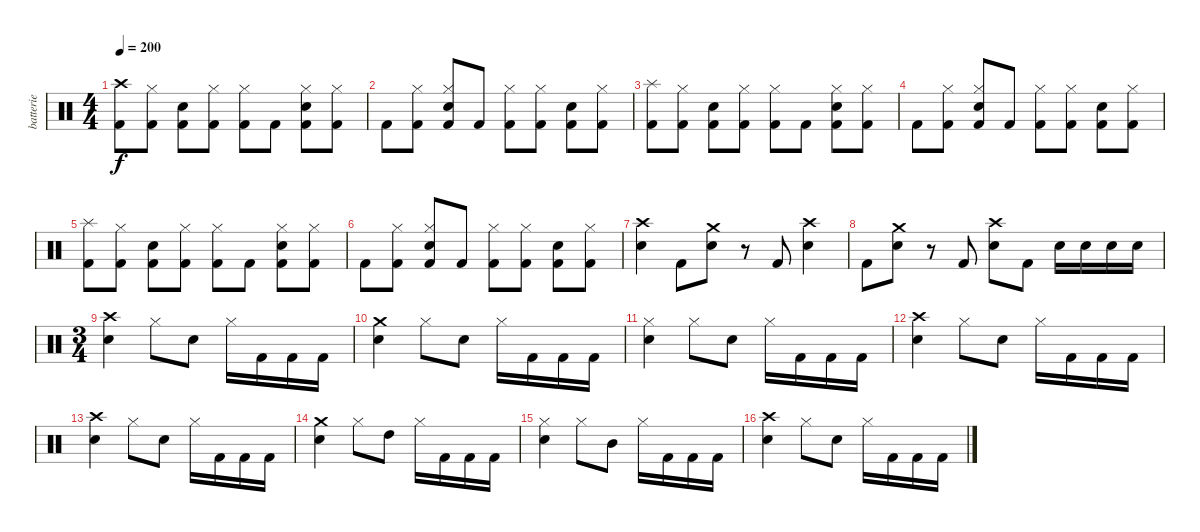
\track ("batterie" "batterie") {instrument percussion}
\staff {score}
\articulation defaults
\ts (4 4)
\tempo 200
\clef neutral
\ks c
("Kick (hit) 2" "Crash high (hit)").8{dy f} ("Kick (hit) 2" "Hi-Hat (closed)").8 ("Kick (hit) 2" "Electric Snare (hit)").8 ("Kick (hit) 2" "Hi-Hat (closed)").8 ("Kick (hit) 2" "Hi-Hat (closed)").8 "Kick (hit) 2".8 ("Kick (hit) 2" "Electric Snare (hit)" "Hi-Hat (closed)").8 ("Kick (hit) 2" "Hi-Hat (closed)").8 |
"Kick (hit) 2".8 ("Kick (hit) 2" "Hi-Hat (closed)").8 ("Kick (hit) 2" "Electric Snare (hit)" "Hi-Hat (closed)").8 "Kick (hit) 2".8 ("Kick (hit) 2" "Hi-Hat (closed)").8 ("Kick (hit) 2" "Hi-Hat (closed)").8 ("Kick (hit) 2" "Electric Snare (hit)").8 ("Kick (hit) 2" "Hi-Hat (closed)").8 |
("Kick (hit) 2" "Splash (hit)").8 ("Kick (hit) 2" "Hi-Hat (closed)").8 ("Kick (hit) 2" "Electric Snare (hit)").8 ("Kick (hit) 2" "Hi-Hat (closed)").8 ("Kick (hit) 2" "Hi-Hat (closed)").8 "Kick (hit) 2".8 ("Kick (hit) 2" "Electric Snare (hit)" "Hi-Hat (closed)").8 ("Kick (hit) 2" "Hi-Hat (closed)").8 |
"Kick (hit) 2".8 ("Kick (hit) 2" "Hi-Hat (closed)").8 ("Kick (hit) 2" "Electric Snare (hit)" "Hi-Hat (closed)").8 "Kick (hit) 2".8 ("Kick (hit) 2" "Hi-Hat (closed)").8 ("Kick (hit) 2" "Hi-Hat (closed)").8 ("Kick (hit) 2" "Electric Snare (hit)").8 ("Kick (hit) 2" "Hi-Hat (closed)").8 |
("Kick (hit) 2" "Splash (hit)").8 ("Kick (hit) 2" "Hi-Hat (closed)").8 ("Kick (hit) 2" "Electric Snare (hit)").8 ("Kick (hit) 2" "Hi-Hat (closed)").8 ("Kick (hit) 2" "Hi-Hat (closed)").8 "Kick (hit) 2".8 ("Kick (hit) 2" "Electric Snare (hit)" "Hi-Hat (closed)").8 ("Kick (hit) 2" "Hi-Hat (closed)").8 |
"Kick (hit) 2".8 ("Kick (hit) 2" "Hi-Hat (closed)").8 ("Kick (hit) 2" "Electric Snare (hit)" "Hi-Hat (closed)").8 "Kick (hit) 2".8 ("Kick (hit) 2" "Hi-Hat (closed)").8 ("Kick (hit) 2" "Hi-Hat (closed)").8 ("Kick (hit) 2" "Electric Snare (hit)").8 ("Kick (hit) 2" "Hi-Hat (closed)").8 |
("Electric Snare (hit)" "Crash high (hit)").4 "Kick (hit) 2".8 ("Electric Snare (hit)" "Crash medium (hit)").8 r.8 "Kick (hit) 2".8 ("Electric Snare (hit)" "Crash high (hit)").4 |
"Kick (hit) 2".8 ("Electric Snare (hit)" "Crash medium (hit)").8 r.8 "Kick (hit) 2".8 ("Electric Snare (hit)" "Crash high (hit)").8 "Kick (hit) 2".8 "Electric Snare (hit)".16 "Electric Snare (hit)".16 "Electric Snare (hit)".16 "Electric Snare (hit)".16 |
\ts (3 4)
("Electric Snare (hit)" "Crash high (hit)").4 "Hi-Hat (closed)".8 "Electric Snare (hit)".8 "Hi-Hat (closed)".16 "Kick (hit) 2".16 "Kick (hit) 2".16 "Kick (hit) 2".16 |
("Electric Snare (hit)" "Crash medium (hit)").4 "Hi-Hat (closed)".8 "Electric Snare (hit)".8 "Hi-Hat (closed)".16 "Kick (hit) 2".16 "Kick (hit) 2".16 "Kick (hit) 2".16 |
("Electric Snare (hit)" "Hi-Hat (closed)").4 "Hi-Hat (closed)".8 "Electric Snare (hit)".8 "Hi-Hat (closed)".16 "Kick (hit) 2".16 "Kick (hit) 2".16 "Kick (hit) 2".16 |
("Electric Snare (hit)" "Crash high (hit)").4 "Hi-Hat (closed)".8 "Electric Snare (hit)".8 "Hi-Hat (closed)".16 "Kick (hit) 2".16 "Kick (hit) 2".16 "Kick (hit) 2".16 |
("Electric Snare (hit)" "Crash high (hit)").4 "Hi-Hat (closed)".8 "Electric Snare (hit)".8 "Hi-Hat (closed)".16 "Kick (hit) 2".16 "Kick (hit) 2".16 "Kick (hit) 2".16 |
("Electric Snare (hit)" "Crash medium (hit)").4 "Hi-Hat (closed)".8 "High Tom (hit)".8 "Hi-Hat (closed)".16 "Kick (hit) 2".16 "Kick (hit) 2".16 "Kick (hit) 2".16 |
("Electric Snare (hit)" "Hi-Hat (closed)").4 "Hi-Hat (closed)".8 "Mid Tom (hit)".8 "Hi-Hat (closed)".16 "Kick (hit) 2".16 "Kick (hit) 2".16 "Kick (hit) 2".16 |
("Electric Snare (hit)" "Crash high (hit)").4 "Hi-Hat (closed)".8 "Electric Snare (hit)".8 "Hi-Hat (closed)".16 "Kick (hit) 2".16 "Kick (hit) 2".16 "Kick (hit) 2".16
